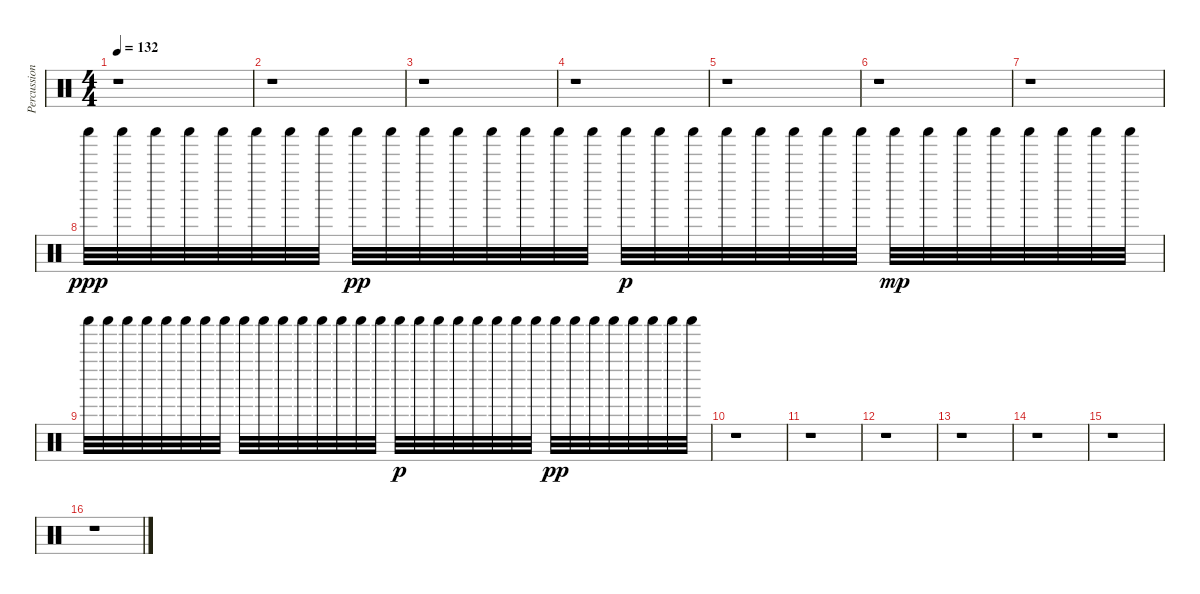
\track ("Percussion" "Percussion") {instrument percussion}
\staff {score}
\articulation defaults
\ts (4 4)
\tempo 132
\clef neutral
\ks c
r.1{dy ppp} |
r.1 |
r.1 |
r.1 |
r.1 |
r.1 |
r.1 |
"Shaker (hit)".32 "Shaker (hit)".32 "Shaker (hit)".32 "Shaker (hit)".32 "Shaker (hit)".32 "Shaker (hit)".32 "Shaker (hit)".32 "Shaker (hit)".32 "Shaker (hit)".32{dy pp} "Shaker (hit)".32 "Shaker (hit)".32 "Shaker (hit)".32 "Shaker (hit)".32 "Shaker (hit)".32 "Shaker (hit)".32 "Shaker (hit)".32 "Shaker (hit)".32{dy p} "Shaker (hit)".32 "Shaker (hit)".32 "Shaker (hit)".32 "Shaker (hit)".32 "Shaker (hit)".32 "Shaker (hit)".32 "Shaker (hit)".32 "Shaker (hit)".32{dy mp} "Shaker (hit)".32 "Shaker (hit)".32 "Shaker (hit)".32 "Shaker (hit)".32 "Shaker (hit)".32 "Shaker (hit)".32 "Shaker (hit)".32 |
"Shaker (hit)".32 "Shaker (hit)".32 "Shaker (hit)".32 "Shaker (hit)".32 "Shaker (hit)".32 "Shaker (hit)".32 "Shaker (hit)".32 "Shaker (hit)".32 "Shaker (hit)".32 "Shaker (hit)".32 "Shaker (hit)".32 "Shaker (hit)".32 "Shaker (hit)".32 "Shaker (hit)".32 "Shaker (hit)".32 "Shaker (hit)".32 "Shaker (hit)".32{dy p} "Shaker (hit)".32 "Shaker (hit)".32 "Shaker (hit)".32 "Shaker (hit)".32 "Shaker (hit)".32 "Shaker (hit)".32 "Shaker (hit)".32 "Shaker (hit)".32{dy pp} "Shaker (hit)".32 "Shaker (hit)".32 "Shaker (hit)".32 "Shaker (hit)".32 "Shaker (hit)".32 "Shaker (hit)".32 "Shaker (hit)".32 |
r.1 |
r.1 |
r.1 |
r.1 |
r.1 |
r.1 |
r.1
